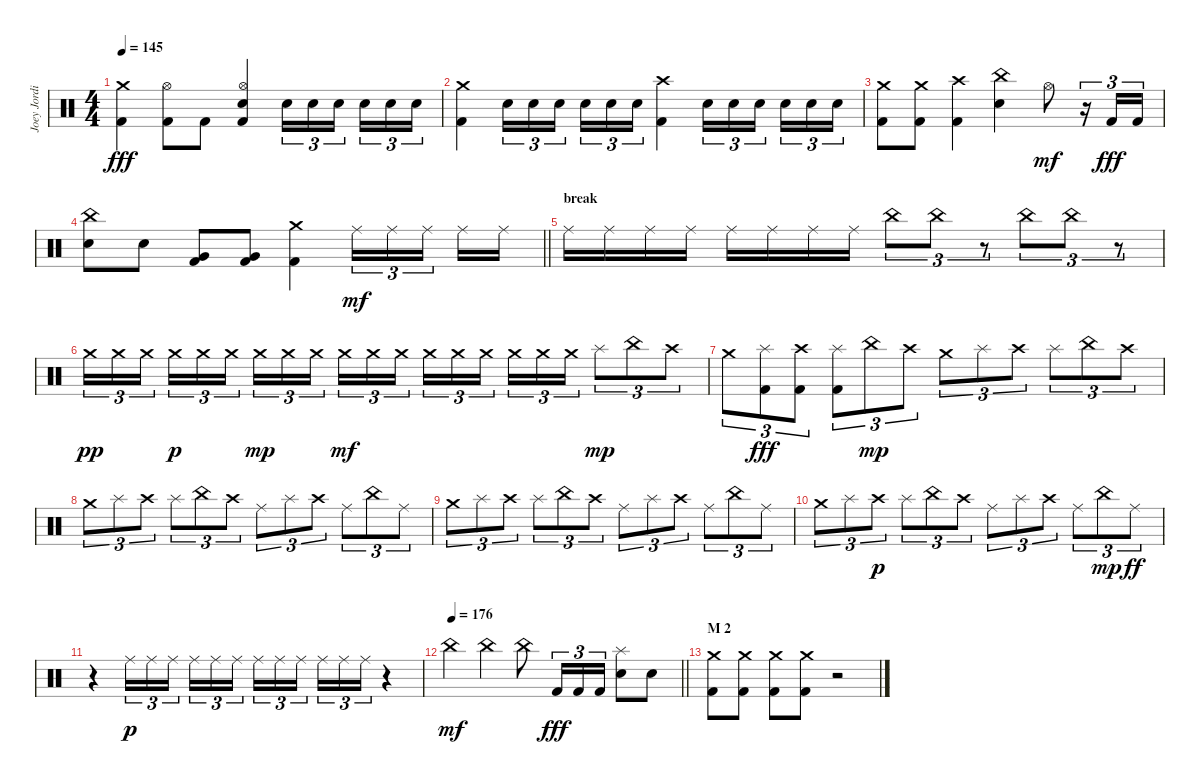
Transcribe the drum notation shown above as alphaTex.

\track ("Joey Jordison" "Joey Jordi") {instrument percussion}
\staff {score}
\articulation defaults
\ts (4 4)
\tempo 145
\clef neutral
\ks c
("Crash medium (hit)" "Kick (hit) 2").4{dy fff} ("Hi-Hat (open)" "Kick (hit) 2").8 "Kick (hit) 2".8 ("Hi-Hat (open)" "Electric Snare (hit)" "Kick (hit) 2").4 "Electric Snare (hit)".16{tu (3 2)} "Electric Snare (hit)".16{tu (3 2)} "Electric Snare (hit)".16{tu (3 2) beam splitsecondary} "Electric Snare (hit)".16{tu (3 2)} "Electric Snare (hit)".16{tu (3 2)} "Electric Snare (hit)".16{tu (3 2)} |
("Crash medium (hit)" "Kick (hit) 2").4 "Electric Snare (hit)".16{tu (3 2)} "Electric Snare (hit)".16{tu (3 2)} "Electric Snare (hit)".16{tu (3 2) beam splitsecondary} "Electric Snare (hit)".16{tu (3 2)} "Electric Snare (hit)".16{tu (3 2)} "Electric Snare (hit)".16{tu (3 2)} ("Crash high (hit)" "Kick (hit) 2").4 "Electric Snare (hit)".16{tu (3 2)} "Electric Snare (hit)".16{tu (3 2)} "Electric Snare (hit)".16{tu (3 2) beam splitsecondary} "Electric Snare (hit)".16{tu (3 2)} "Electric Snare (hit)".16{tu (3 2)} "Electric Snare (hit)".16{tu (3 2)} |
("Crash medium (hit)" "Kick (hit) 2").8 ("Crash medium (hit)" "Kick (hit) 2").8 ("Crash high (hit)" "Kick (hit) 2").4 ("China (hit)" "Electric Snare (hit)").4 "Hi-Hat (open)".8{dy mf} r.16{tu (3 2)} "Kick (hit) 2".16{tu (3 2) dy fff} "Kick (hit) 2".16{tu (3 2)} |
\barLineRight lightlight
("China (hit)" "Electric Snare (hit)").8 "Electric Snare (hit)".8 ("Very Low Tom (hit)" "Kick (hit) 2").8 ("Very Low Tom (hit)" "Kick (hit) 2").8 ("Crash medium (hit)" "Kick (hit) 2").4 "Ride (middle)".16{tu (3 2) dy mf} "Ride (middle)".16{tu (3 2)} "Ride (middle)".16{tu (3 2) beam splitsecondary} "Ride (middle)".16 "Ride (middle)".16 |
\section ("" "break")
"Ride (middle)".16 "Ride (middle)".16 "Ride (middle)".16 "Ride (middle)".16 "Ride (middle)".16 "Ride (middle)".16 "Ride (middle)".16 "Ride (middle)".16 "China (hit)".8{tu (3 2)} "China (hit)".8{tu (3 2)} r.8{tu (3 2)} "China (hit)".8{tu (3 2)} "China (hit)".8{tu (3 2)} r.8{tu (3 2)} |
"Crash medium (hit)".16{tu (3 2) dy pp} "Crash medium (hit)".16{tu (3 2)} "Crash medium (hit)".16{tu (3 2) beam splitsecondary} "Crash medium (hit)".16{tu (3 2) dy p} "Crash medium (hit)".16{tu (3 2)} "Crash medium (hit)".16{tu (3 2)} "Crash medium (hit)".16{tu (3 2) dy mp} "Crash medium (hit)".16{tu (3 2)} "Crash medium (hit)".16{tu (3 2) beam splitsecondary} "Crash medium (hit)".16{tu (3 2) dy mf} "Crash medium (hit)".16{tu (3 2)} "Crash medium (hit)".16{tu (3 2)} "Crash medium (hit)".16{tu (3 2)} "Crash medium (hit)".16{tu (3 2)} "Crash medium (hit)".16{tu (3 2) beam splitsecondary} "Crash medium (hit)".16{tu (3 2)} "Crash medium (hit)".16{tu (3 2)} "Crash medium (hit)".16{tu (3 2)} "Splash (hit)".8{tu (3 2) dy mp} "China (hit)".8{tu (3 2)} "Crash high (hit)".8{tu (3 2)} |
"Crash medium (hit)".8{tu (3 2)} ("Splash (hit)" "Kick (hit) 2").8{tu (3 2) dy fff} ("Crash high (hit)" "Kick (hit) 2").8{tu (3 2)} ("Splash (hit)" "Kick (hit) 2").8{tu (3 2)} "China (hit)".8{tu (3 2) dy mp} "Crash high (hit)".8{tu (3 2)} "Crash medium (hit)".8{tu (3 2)} "Splash (hit)".8{tu (3 2)} "Crash high (hit)".8{tu (3 2)} "Splash (hit)".8{tu (3 2)} "China (hit)".8{tu (3 2)} "Crash high (hit)".8{tu (3 2)} |
"Crash medium (hit)".8{tu (3 2)} "Splash (hit)".8{tu (3 2)} "Crash high (hit)".8{tu (3 2)} "Splash (hit)".8{tu (3 2)} "China (hit)".8{tu (3 2)} "Crash high (hit)".8{tu (3 2)} "Ride (middle)".8{tu (3 2)} "Splash (hit)".8{tu (3 2)} "Crash high (hit)".8{tu (3 2)} "Ride (middle)".8{tu (3 2)} "China (hit)".8{tu (3 2)} "Ride (middle)".8{tu (3 2)} |
"Crash medium (hit)".8{tu (3 2)} "Splash (hit)".8{tu (3 2)} "Crash high (hit)".8{tu (3 2)} "Splash (hit)".8{tu (3 2)} "China (hit)".8{tu (3 2)} "Crash high (hit)".8{tu (3 2)} "Ride (middle)".8{tu (3 2)} "Splash (hit)".8{tu (3 2)} "Crash high (hit)".8{tu (3 2)} "Ride (middle)".8{tu (3 2)} "China (hit)".8{tu (3 2)} "Ride (middle)".8{tu (3 2)} |
"Crash medium (hit)".8{tu (3 2)} "Splash (hit)".8{tu (3 2)} "Crash high (hit)".8{tu (3 2) dy p} "Splash (hit)".8{tu (3 2)} "China (hit)".8{tu (3 2)} "Crash high (hit)".8{tu (3 2)} "Ride (middle)".8{tu (3 2)} "Splash (hit)".8{tu (3 2)} "Crash high (hit)".8{tu (3 2)} "Ride (middle)".8{tu (3 2)} "China (hit)".8{tu (3 2) dy mp} "Ride (middle)".8{tu (3 2) dy ff} |
r.4 "Ride (middle)".16{tu (3 2) dy p} "Ride (middle)".16{tu (3 2)} "Ride (middle)".16{tu (3 2) beam splitsecondary} "Ride (middle)".16{tu (3 2)} "Ride (middle)".16{tu (3 2)} "Ride (middle)".16{tu (3 2)} "Ride (middle)".16{tu (3 2)} "Ride (middle)".16{tu (3 2)} "Ride (middle)".16{tu (3 2) beam splitsecondary} "Ride (middle)".16{tu (3 2)} "Ride (middle)".16{tu (3 2)} "Ride (middle)".16{tu (3 2)} r.4 |
\tempo 176
\barLineRight lightlight "China (hit)".4{dy mf} "China (hit)".4 "China (hit)".8 "Kick (hit) 2".16{tu (3 2) dy fff} "Kick (hit) 2".16{tu (3 2)} "Kick (hit) 2".16{tu (3 2)}
("Splash (hit)" "Electric Snare (hit)").8 "Electric Snare (hit)".8 |
\section ("" "M 2")
("Crash medium (hit)" "Kick (hit) 2").8 ("Crash medium (hit)" "Kick (hit) 2").8 ("Crash medium (hit)" "Kick (hit) 2").8 ("Crash medium (hit)" "Kick (hit) 2").8 r.2
